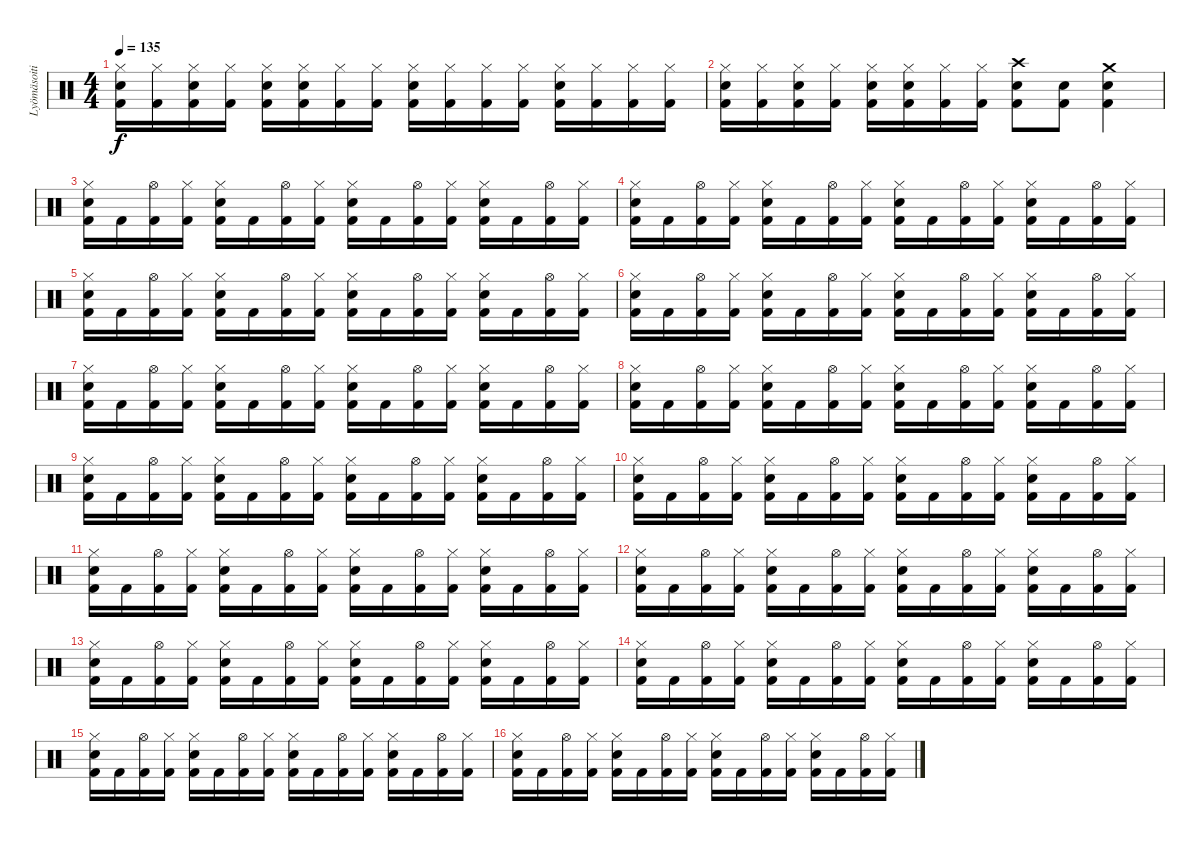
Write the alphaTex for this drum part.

\track ("Lyömäsoitin" "Lyömäsoiti") {instrument percussion}
\staff {score}
\articulation defaults
\ts (4 4)
\tempo 135
\clef neutral
\ks c
("Kick (hit) 2" "Electric Snare (hit)" "Hi-Hat (closed)").16{dy f} ("Kick (hit) 2" "Hi-Hat (closed)").16 ("Kick (hit) 2" "Electric Snare (hit)" "Hi-Hat (closed)").16 ("Kick (hit) 2" "Hi-Hat (closed)").16 ("Kick (hit) 2" "Electric Snare (hit)" "Hi-Hat (closed)").16 ("Kick (hit) 2" "Electric Snare (hit)" "Hi-Hat (closed)").16 ("Kick (hit) 2" "Hi-Hat (closed)").16 ("Kick (hit) 2" "Hi-Hat (closed)").16 ("Kick (hit) 2" "Electric Snare (hit)" "Hi-Hat (closed)").16 ("Kick (hit) 2" "Hi-Hat (closed)").16 ("Kick (hit) 2" "Hi-Hat (closed)").16 ("Kick (hit) 2" "Hi-Hat (closed)").16 ("Kick (hit) 2" "Electric Snare (hit)" "Hi-Hat (closed)").16 ("Kick (hit) 2" "Hi-Hat (closed)").16 ("Kick (hit) 2" "Hi-Hat (closed)").16 ("Kick (hit) 2" "Hi-Hat (closed)").16 |
("Kick (hit) 2" "Electric Snare (hit)" "Hi-Hat (closed)").16 ("Kick (hit) 2" "Hi-Hat (closed)").16 ("Kick (hit) 2" "Electric Snare (hit)" "Hi-Hat (closed)").16 ("Kick (hit) 2" "Hi-Hat (closed)").16 ("Kick (hit) 2" "Electric Snare (hit)" "Hi-Hat (closed)").16 ("Kick (hit) 2" "Electric Snare (hit)" "Hi-Hat (closed)").16 ("Kick (hit) 2" "Hi-Hat (closed)").16 ("Kick (hit) 2" "Hi-Hat (closed)").16 ("Kick (hit) 2" "Electric Snare (hit)" "Crash high (hit)").8 ("Kick (hit) 2" "Electric Snare (hit)").8 ("Kick (hit) 2" "Electric Snare (hit)" "Crash medium (hit)").4 |
("Hi-Hat (closed)" "Electric Snare (hit)" "Kick (hit) 2").16 "Kick (hit) 2".16 ("Hi-Hat (open)" "Kick (hit) 2").16 ("Hi-Hat (closed)" "Kick (hit) 2").16 ("Hi-Hat (closed)" "Electric Snare (hit)" "Kick (hit) 2").16 "Kick (hit) 2".16 ("Hi-Hat (open)" "Kick (hit) 2").16 ("Hi-Hat (closed)" "Kick (hit) 2").16 ("Hi-Hat (closed)" "Electric Snare (hit)" "Kick (hit) 2").16 "Kick (hit) 2".16 ("Hi-Hat (open)" "Kick (hit) 2").16 ("Hi-Hat (closed)" "Kick (hit) 2").16 ("Hi-Hat (closed)" "Electric Snare (hit)" "Kick (hit) 2").16 "Kick (hit) 2".16 ("Hi-Hat (open)" "Kick (hit) 2").16 ("Hi-Hat (closed)" "Kick (hit) 2").16 |
("Hi-Hat (closed)" "Electric Snare (hit)" "Kick (hit) 2").16 "Kick (hit) 2".16 ("Hi-Hat (open)" "Kick (hit) 2").16 ("Hi-Hat (closed)" "Kick (hit) 2").16 ("Hi-Hat (closed)" "Electric Snare (hit)" "Kick (hit) 2").16 "Kick (hit) 2".16 ("Hi-Hat (open)" "Kick (hit) 2").16 ("Hi-Hat (closed)" "Kick (hit) 2").16 ("Hi-Hat (closed)" "Electric Snare (hit)" "Kick (hit) 2").16 "Kick (hit) 2".16 ("Hi-Hat (open)" "Kick (hit) 2").16 ("Hi-Hat (closed)" "Kick (hit) 2").16 ("Hi-Hat (closed)" "Electric Snare (hit)" "Kick (hit) 2").16 "Kick (hit) 2".16 ("Hi-Hat (open)" "Kick (hit) 2").16 ("Hi-Hat (closed)" "Kick (hit) 2").16 |
("Hi-Hat (closed)" "Electric Snare (hit)" "Kick (hit) 2").16 "Kick (hit) 2".16 ("Hi-Hat (open)" "Kick (hit) 2").16 ("Hi-Hat (closed)" "Kick (hit) 2").16 ("Hi-Hat (closed)" "Electric Snare (hit)" "Kick (hit) 2").16 "Kick (hit) 2".16 ("Hi-Hat (open)" "Kick (hit) 2").16 ("Hi-Hat (closed)" "Kick (hit) 2").16 ("Hi-Hat (closed)" "Electric Snare (hit)" "Kick (hit) 2").16 "Kick (hit) 2".16 ("Hi-Hat (open)" "Kick (hit) 2").16 ("Hi-Hat (closed)" "Kick (hit) 2").16 ("Hi-Hat (closed)" "Electric Snare (hit)" "Kick (hit) 2").16 "Kick (hit) 2".16 ("Hi-Hat (open)" "Kick (hit) 2").16 ("Hi-Hat (closed)" "Kick (hit) 2").16 |
("Hi-Hat (closed)" "Electric Snare (hit)" "Kick (hit) 2").16 "Kick (hit) 2".16 ("Hi-Hat (open)" "Kick (hit) 2").16 ("Hi-Hat (closed)" "Kick (hit) 2").16 ("Hi-Hat (closed)" "Electric Snare (hit)" "Kick (hit) 2").16 "Kick (hit) 2".16 ("Hi-Hat (open)" "Kick (hit) 2").16 ("Hi-Hat (closed)" "Kick (hit) 2").16 ("Hi-Hat (closed)" "Electric Snare (hit)" "Kick (hit) 2").16 "Kick (hit) 2".16 ("Hi-Hat (open)" "Kick (hit) 2").16 ("Hi-Hat (closed)" "Kick (hit) 2").16 ("Hi-Hat (closed)" "Electric Snare (hit)" "Kick (hit) 2").16 "Kick (hit) 2".16 ("Hi-Hat (open)" "Kick (hit) 2").16 ("Hi-Hat (closed)" "Kick (hit) 2").16 |
("Hi-Hat (closed)" "Electric Snare (hit)" "Kick (hit) 2").16 "Kick (hit) 2".16 ("Hi-Hat (open)" "Kick (hit) 2").16 ("Hi-Hat (closed)" "Kick (hit) 2").16 ("Hi-Hat (closed)" "Electric Snare (hit)" "Kick (hit) 2").16 "Kick (hit) 2".16 ("Hi-Hat (open)" "Kick (hit) 2").16 ("Hi-Hat (closed)" "Kick (hit) 2").16 ("Hi-Hat (closed)" "Electric Snare (hit)" "Kick (hit) 2").16 "Kick (hit) 2".16 ("Hi-Hat (open)" "Kick (hit) 2").16 ("Hi-Hat (closed)" "Kick (hit) 2").16 ("Hi-Hat (closed)" "Electric Snare (hit)" "Kick (hit) 2").16 "Kick (hit) 2".16 ("Hi-Hat (open)" "Kick (hit) 2").16 ("Hi-Hat (closed)" "Kick (hit) 2").16 |
("Hi-Hat (closed)" "Electric Snare (hit)" "Kick (hit) 2").16 "Kick (hit) 2".16 ("Hi-Hat (open)" "Kick (hit) 2").16 ("Hi-Hat (closed)" "Kick (hit) 2").16 ("Hi-Hat (closed)" "Electric Snare (hit)" "Kick (hit) 2").16 "Kick (hit) 2".16 ("Hi-Hat (open)" "Kick (hit) 2").16 ("Hi-Hat (closed)" "Kick (hit) 2").16 ("Hi-Hat (closed)" "Electric Snare (hit)" "Kick (hit) 2").16 "Kick (hit) 2".16 ("Hi-Hat (open)" "Kick (hit) 2").16 ("Hi-Hat (closed)" "Kick (hit) 2").16 ("Hi-Hat (closed)" "Electric Snare (hit)" "Kick (hit) 2").16 "Kick (hit) 2".16 ("Hi-Hat (open)" "Kick (hit) 2").16 ("Hi-Hat (closed)" "Kick (hit) 2").16 |
("Hi-Hat (closed)" "Electric Snare (hit)" "Kick (hit) 2").16 "Kick (hit) 2".16 ("Hi-Hat (open)" "Kick (hit) 2").16 ("Hi-Hat (closed)" "Kick (hit) 2").16 ("Hi-Hat (closed)" "Electric Snare (hit)" "Kick (hit) 2").16 "Kick (hit) 2".16 ("Hi-Hat (open)" "Kick (hit) 2").16 ("Hi-Hat (closed)" "Kick (hit) 2").16 ("Hi-Hat (closed)" "Electric Snare (hit)" "Kick (hit) 2").16 "Kick (hit) 2".16 ("Hi-Hat (open)" "Kick (hit) 2").16 ("Hi-Hat (closed)" "Kick (hit) 2").16 ("Hi-Hat (closed)" "Electric Snare (hit)" "Kick (hit) 2").16 "Kick (hit) 2".16 ("Hi-Hat (open)" "Kick (hit) 2").16 ("Hi-Hat (closed)" "Kick (hit) 2").16 |
("Hi-Hat (closed)" "Electric Snare (hit)" "Kick (hit) 2").16 "Kick (hit) 2".16 ("Hi-Hat (open)" "Kick (hit) 2").16 ("Hi-Hat (closed)" "Kick (hit) 2").16 ("Hi-Hat (closed)" "Electric Snare (hit)" "Kick (hit) 2").16 "Kick (hit) 2".16 ("Hi-Hat (open)" "Kick (hit) 2").16 ("Hi-Hat (closed)" "Kick (hit) 2").16 ("Hi-Hat (closed)" "Electric Snare (hit)" "Kick (hit) 2").16 "Kick (hit) 2".16 ("Hi-Hat (open)" "Kick (hit) 2").16 ("Hi-Hat (closed)" "Kick (hit) 2").16 ("Hi-Hat (closed)" "Electric Snare (hit)" "Kick (hit) 2").16 "Kick (hit) 2".16 ("Hi-Hat (open)" "Kick (hit) 2").16 ("Hi-Hat (closed)" "Kick (hit) 2").16 |
("Hi-Hat (closed)" "Electric Snare (hit)" "Kick (hit) 2").16 "Kick (hit) 2".16 ("Hi-Hat (open)" "Kick (hit) 2").16 ("Hi-Hat (closed)" "Kick (hit) 2").16 ("Hi-Hat (closed)" "Electric Snare (hit)" "Kick (hit) 2").16 "Kick (hit) 2".16 ("Hi-Hat (open)" "Kick (hit) 2").16 ("Hi-Hat (closed)" "Kick (hit) 2").16 ("Hi-Hat (closed)" "Electric Snare (hit)" "Kick (hit) 2").16 "Kick (hit) 2".16 ("Hi-Hat (open)" "Kick (hit) 2").16 ("Hi-Hat (closed)" "Kick (hit) 2").16 ("Hi-Hat (closed)" "Electric Snare (hit)" "Kick (hit) 2").16 "Kick (hit) 2".16 ("Hi-Hat (open)" "Kick (hit) 2").16 ("Hi-Hat (closed)" "Kick (hit) 2").16 |
("Hi-Hat (closed)" "Electric Snare (hit)" "Kick (hit) 2").16 "Kick (hit) 2".16 ("Hi-Hat (open)" "Kick (hit) 2").16 ("Hi-Hat (closed)" "Kick (hit) 2").16 ("Hi-Hat (closed)" "Electric Snare (hit)" "Kick (hit) 2").16 "Kick (hit) 2".16 ("Hi-Hat (open)" "Kick (hit) 2").16 ("Hi-Hat (closed)" "Kick (hit) 2").16 ("Hi-Hat (closed)" "Electric Snare (hit)" "Kick (hit) 2").16 "Kick (hit) 2".16 ("Hi-Hat (open)" "Kick (hit) 2").16 ("Hi-Hat (closed)" "Kick (hit) 2").16 ("Hi-Hat (closed)" "Electric Snare (hit)" "Kick (hit) 2").16 "Kick (hit) 2".16 ("Hi-Hat (open)" "Kick (hit) 2").16 ("Hi-Hat (closed)" "Kick (hit) 2").16 |
("Hi-Hat (closed)" "Electric Snare (hit)" "Kick (hit) 2").16 "Kick (hit) 2".16 ("Hi-Hat (open)" "Kick (hit) 2").16 ("Hi-Hat (closed)" "Kick (hit) 2").16 ("Hi-Hat (closed)" "Electric Snare (hit)" "Kick (hit) 2").16 "Kick (hit) 2".16 ("Hi-Hat (open)" "Kick (hit) 2").16 ("Hi-Hat (closed)" "Kick (hit) 2").16 ("Hi-Hat (closed)" "Electric Snare (hit)" "Kick (hit) 2").16 "Kick (hit) 2".16 ("Hi-Hat (open)" "Kick (hit) 2").16 ("Hi-Hat (closed)" "Kick (hit) 2").16 ("Hi-Hat (closed)" "Electric Snare (hit)" "Kick (hit) 2").16 "Kick (hit) 2".16 ("Hi-Hat (open)" "Kick (hit) 2").16 ("Hi-Hat (closed)" "Kick (hit) 2").16 |
("Hi-Hat (closed)" "Electric Snare (hit)" "Kick (hit) 2").16 "Kick (hit) 2".16 ("Hi-Hat (open)" "Kick (hit) 2").16 ("Hi-Hat (closed)" "Kick (hit) 2").16 ("Hi-Hat (closed)" "Electric Snare (hit)" "Kick (hit) 2").16 "Kick (hit) 2".16 ("Hi-Hat (open)" "Kick (hit) 2").16 ("Hi-Hat (closed)" "Kick (hit) 2").16 ("Hi-Hat (closed)" "Electric Snare (hit)" "Kick (hit) 2").16 "Kick (hit) 2".16 ("Hi-Hat (open)" "Kick (hit) 2").16 ("Hi-Hat (closed)" "Kick (hit) 2").16 ("Hi-Hat (closed)" "Electric Snare (hit)" "Kick (hit) 2").16 "Kick (hit) 2".16 ("Hi-Hat (open)" "Kick (hit) 2").16 ("Hi-Hat (closed)" "Kick (hit) 2").16 |
("Hi-Hat (closed)" "Electric Snare (hit)" "Kick (hit) 2").16 "Kick (hit) 2".16 ("Hi-Hat (open)" "Kick (hit) 2").16 ("Hi-Hat (closed)" "Kick (hit) 2").16 ("Hi-Hat (closed)" "Electric Snare (hit)" "Kick (hit) 2").16 "Kick (hit) 2".16 ("Hi-Hat (open)" "Kick (hit) 2").16 ("Hi-Hat (closed)" "Kick (hit) 2").16 ("Hi-Hat (closed)" "Electric Snare (hit)" "Kick (hit) 2").16 "Kick (hit) 2".16 ("Hi-Hat (open)" "Kick (hit) 2").16 ("Hi-Hat (closed)" "Kick (hit) 2").16 ("Hi-Hat (closed)" "Electric Snare (hit)" "Kick (hit) 2").16 "Kick (hit) 2".16 ("Hi-Hat (open)" "Kick (hit) 2").16 ("Hi-Hat (closed)" "Kick (hit) 2").16 |
("Hi-Hat (closed)" "Electric Snare (hit)" "Kick (hit) 2").16 "Kick (hit) 2".16 ("Hi-Hat (open)" "Kick (hit) 2").16 ("Hi-Hat (closed)" "Kick (hit) 2").16 ("Hi-Hat (closed)" "Electric Snare (hit)" "Kick (hit) 2").16 "Kick (hit) 2".16 ("Hi-Hat (open)" "Kick (hit) 2").16 ("Hi-Hat (closed)" "Kick (hit) 2").16 ("Hi-Hat (closed)" "Electric Snare (hit)" "Kick (hit) 2").16 "Kick (hit) 2".16 ("Hi-Hat (open)" "Kick (hit) 2").16 ("Hi-Hat (closed)" "Kick (hit) 2").16 ("Hi-Hat (closed)" "Electric Snare (hit)" "Kick (hit) 2").16 "Kick (hit) 2".16 ("Hi-Hat (open)" "Kick (hit) 2").16 ("Hi-Hat (closed)" "Kick (hit) 2").16
